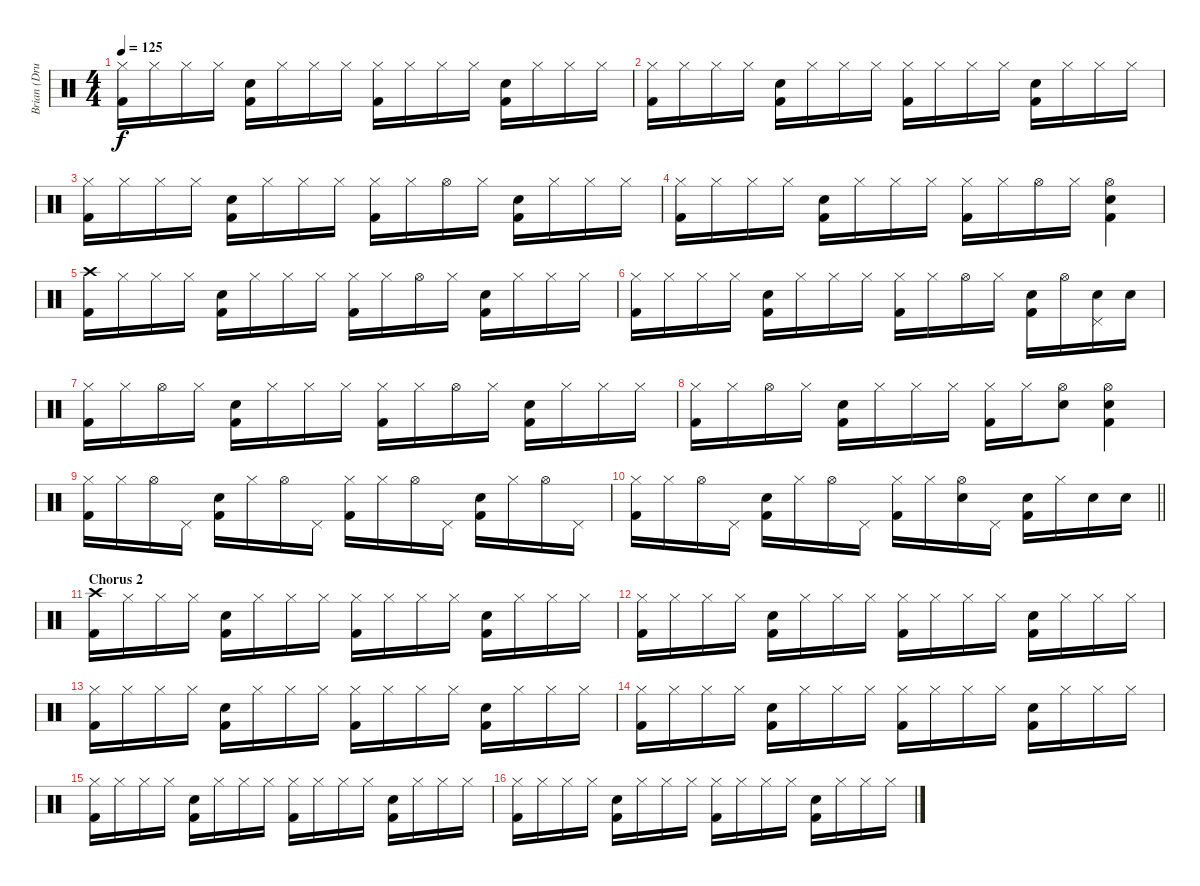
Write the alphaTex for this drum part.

\track ("Brian (Drums)" "Brian (Dru") {instrument percussion}
\staff {score}
\articulation defaults
\ts (4 4)
\tempo 125
\clef neutral
\ks c
("Hi-Hat (closed)" "Kick (hit) 2").16{dy f} "Hi-Hat (closed)".16 "Hi-Hat (closed)".16 "Hi-Hat (closed)".16 ("Electric Snare (hit)" "Kick (hit) 2").16 "Hi-Hat (closed)".16 "Hi-Hat (closed)".16 "Hi-Hat (closed)".16 ("Hi-Hat (closed)" "Kick (hit) 2").16 "Hi-Hat (closed)".16 "Hi-Hat (closed)".16 "Hi-Hat (closed)".16 ("Electric Snare (hit)" "Kick (hit) 2").16 "Hi-Hat (closed)".16 "Hi-Hat (closed)".16 "Hi-Hat (closed)".16 |
("Hi-Hat (closed)" "Kick (hit) 2").16 "Hi-Hat (closed)".16 "Hi-Hat (closed)".16 "Hi-Hat (closed)".16 ("Electric Snare (hit)" "Kick (hit) 2").16 "Hi-Hat (closed)".16 "Hi-Hat (closed)".16 "Hi-Hat (closed)".16 ("Hi-Hat (closed)" "Kick (hit) 2").16 "Hi-Hat (closed)".16 "Hi-Hat (closed)".16 "Hi-Hat (closed)".16 ("Electric Snare (hit)" "Kick (hit) 2").16 "Hi-Hat (closed)".16 "Hi-Hat (closed)".16 "Hi-Hat (closed)".16 |
("Hi-Hat (closed)" "Kick (hit) 2").16 "Hi-Hat (closed)".16 "Hi-Hat (closed)".16 "Hi-Hat (closed)".16 ("Electric Snare (hit)" "Kick (hit) 2").16 "Hi-Hat (closed)".16 "Hi-Hat (closed)".16 "Hi-Hat (closed)".16 ("Hi-Hat (closed)" "Kick (hit) 2").16 "Hi-Hat (closed)".16 "Hi-Hat (open)".16 "Hi-Hat (closed)".16 ("Electric Snare (hit)" "Kick (hit) 2").16 "Hi-Hat (closed)".16 "Hi-Hat (closed)".16 "Hi-Hat (closed)".16 |
("Hi-Hat (closed)" "Kick (hit) 2").16 "Hi-Hat (closed)".16 "Hi-Hat (closed)".16 "Hi-Hat (closed)".16 ("Electric Snare (hit)" "Kick (hit) 2").16 "Hi-Hat (closed)".16 "Hi-Hat (closed)".16 "Hi-Hat (closed)".16 ("Hi-Hat (closed)" "Kick (hit) 2").16 "Hi-Hat (closed)".16 "Hi-Hat (open)".16 "Hi-Hat (closed)".16 ("Hi-Hat (open)" "Electric Snare (hit)" "Kick (hit) 2").4 |
("Crash high (hit)" "Kick (hit) 2").16 "Hi-Hat (closed)".16 "Hi-Hat (closed)".16 "Hi-Hat (closed)".16 ("Electric Snare (hit)" "Kick (hit) 2").16 "Hi-Hat (closed)".16 "Hi-Hat (closed)".16 "Hi-Hat (closed)".16 ("Hi-Hat (closed)" "Kick (hit) 2").16 "Hi-Hat (closed)".16 "Hi-Hat (open)".16 "Hi-Hat (closed)".16 ("Electric Snare (hit)" "Kick (hit) 2").16 "Hi-Hat (closed)".16 "Hi-Hat (closed)".16 "Hi-Hat (closed)".16 |
("Hi-Hat (closed)" "Kick (hit) 2").16 "Hi-Hat (closed)".16 "Hi-Hat (closed)".16 "Hi-Hat (closed)".16 ("Electric Snare (hit)" "Kick (hit) 2").16 "Hi-Hat (closed)".16 "Hi-Hat (closed)".16 "Hi-Hat (closed)".16 ("Hi-Hat (closed)" "Kick (hit) 2").16 "Hi-Hat (closed)".16 "Hi-Hat (open)".16 "Hi-Hat (closed)".16 ("Electric Snare (hit)" "Kick (hit) 2").16 "Hi-Hat (open)".16 ("Pedal Hi-Hat (hit)" "Electric Snare (hit)").16 "Electric Snare (hit)".16 |
("Hi-Hat (closed)" "Kick (hit) 2").16 "Hi-Hat (closed)".16 "Hi-Hat (open)".16 "Hi-Hat (closed)".16 ("Electric Snare (hit)" "Kick (hit) 2").16 "Hi-Hat (closed)".16 "Hi-Hat (closed)".16 "Hi-Hat (closed)".16 ("Hi-Hat (closed)" "Kick (hit) 2").16 "Hi-Hat (closed)".16 "Hi-Hat (open)".16 "Hi-Hat (closed)".16 ("Electric Snare (hit)" "Kick (hit) 2").16 "Hi-Hat (closed)".16 "Hi-Hat (closed)".16 "Hi-Hat (closed)".16 |
("Hi-Hat (closed)" "Kick (hit) 2").16 "Hi-Hat (closed)".16 "Hi-Hat (open)".16 "Hi-Hat (closed)".16 ("Electric Snare (hit)" "Kick (hit) 2").16 "Hi-Hat (closed)".16 "Hi-Hat (closed)".16 "Hi-Hat (closed)".16 ("Hi-Hat (closed)" "Kick (hit) 2").16 "Hi-Hat (closed)".16 ("Hi-Hat (open)" "Electric Snare (hit)").8 ("Hi-Hat (open)" "Electric Snare (hit)" "Kick (hit) 2").4 |
("Hi-Hat (closed)" "Kick (hit) 2").16 "Hi-Hat (closed)".16 "Hi-Hat (open)".16 "Pedal Hi-Hat (hit)".16 ("Electric Snare (hit)" "Kick (hit) 2").16 "Hi-Hat (closed)".16 "Hi-Hat (open)".16 "Pedal Hi-Hat (hit)".16 ("Hi-Hat (closed)" "Kick (hit) 2").16 "Hi-Hat (closed)".16 "Hi-Hat (open)".16 "Pedal Hi-Hat (hit)".16 ("Electric Snare (hit)" "Kick (hit) 2").16 "Hi-Hat (closed)".16 "Hi-Hat (open)".16 "Pedal Hi-Hat (hit)".16 |
\barLineRight lightlight
("Hi-Hat (closed)" "Kick (hit) 2").16 "Hi-Hat (closed)".16 "Hi-Hat (open)".16 "Pedal Hi-Hat (hit)".16 ("Electric Snare (hit)" "Kick (hit) 2").16 "Hi-Hat (closed)".16 "Hi-Hat (open)".16 "Pedal Hi-Hat (hit)".16 ("Hi-Hat (closed)" "Kick (hit) 2").16 "Hi-Hat (closed)".16 ("Hi-Hat (open)" "Electric Snare (hit)").16 "Pedal Hi-Hat (hit)".16 ("Electric Snare (hit)" "Kick (hit) 2").16 "Hi-Hat (closed)".16 "Electric Snare (hit)".16 "Electric Snare (hit)".16 |
\section ("" "Chorus 2")
("Crash high (hit)" "Kick (hit) 2").16 "Hi-Hat (closed)".16 "Hi-Hat (closed)".16 "Hi-Hat (closed)".16 ("Electric Snare (hit)" "Kick (hit) 2").16 "Hi-Hat (closed)".16 "Hi-Hat (closed)".16 "Hi-Hat (closed)".16 ("Hi-Hat (closed)" "Kick (hit) 2").16 "Hi-Hat (closed)".16 "Hi-Hat (closed)".16 "Hi-Hat (closed)".16 ("Electric Snare (hit)" "Kick (hit) 2").16 "Hi-Hat (closed)".16 "Hi-Hat (closed)".16 "Hi-Hat (closed)".16 |
("Hi-Hat (closed)" "Kick (hit) 2").16 "Hi-Hat (closed)".16 "Hi-Hat (closed)".16 "Hi-Hat (closed)".16 ("Electric Snare (hit)" "Kick (hit) 2").16 "Hi-Hat (closed)".16 "Hi-Hat (closed)".16 "Hi-Hat (closed)".16 ("Hi-Hat (closed)" "Kick (hit) 2").16 "Hi-Hat (closed)".16 "Hi-Hat (closed)".16 "Hi-Hat (closed)".16 ("Electric Snare (hit)" "Kick (hit) 2").16 "Hi-Hat (closed)".16 "Hi-Hat (closed)".16 "Hi-Hat (closed)".16 |
("Hi-Hat (closed)" "Kick (hit) 2").16 "Hi-Hat (closed)".16 "Hi-Hat (closed)".16 "Hi-Hat (closed)".16 ("Electric Snare (hit)" "Kick (hit) 2").16 "Hi-Hat (closed)".16 "Hi-Hat (closed)".16 "Hi-Hat (closed)".16 ("Hi-Hat (closed)" "Kick (hit) 2").16 "Hi-Hat (closed)".16 "Hi-Hat (closed)".16 "Hi-Hat (closed)".16 ("Electric Snare (hit)" "Kick (hit) 2").16 "Hi-Hat (closed)".16 "Hi-Hat (closed)".16 "Hi-Hat (closed)".16 |
("Hi-Hat (closed)" "Kick (hit) 2").16 "Hi-Hat (closed)".16 "Hi-Hat (closed)".16 "Hi-Hat (closed)".16 ("Electric Snare (hit)" "Kick (hit) 2").16 "Hi-Hat (closed)".16 "Hi-Hat (closed)".16 "Hi-Hat (closed)".16 ("Hi-Hat (closed)" "Kick (hit) 2").16 "Hi-Hat (closed)".16 "Hi-Hat (closed)".16 "Hi-Hat (closed)".16 ("Electric Snare (hit)" "Kick (hit) 2").16 "Hi-Hat (closed)".16 "Hi-Hat (closed)".16 "Hi-Hat (closed)".16 |
("Hi-Hat (closed)" "Kick (hit) 2").16 "Hi-Hat (closed)".16 "Hi-Hat (closed)".16 "Hi-Hat (closed)".16 ("Electric Snare (hit)" "Kick (hit) 2").16 "Hi-Hat (closed)".16 "Hi-Hat (closed)".16 "Hi-Hat (closed)".16 ("Hi-Hat (closed)" "Kick (hit) 2").16 "Hi-Hat (closed)".16 "Hi-Hat (closed)".16 "Hi-Hat (closed)".16 ("Electric Snare (hit)" "Kick (hit) 2").16 "Hi-Hat (closed)".16 "Hi-Hat (closed)".16 "Hi-Hat (closed)".16 |
("Hi-Hat (closed)" "Kick (hit) 2").16 "Hi-Hat (closed)".16 "Hi-Hat (closed)".16 "Hi-Hat (closed)".16 ("Electric Snare (hit)" "Kick (hit) 2").16 "Hi-Hat (closed)".16 "Hi-Hat (closed)".16 "Hi-Hat (closed)".16 ("Hi-Hat (closed)" "Kick (hit) 2").16 "Hi-Hat (closed)".16 "Hi-Hat (closed)".16 "Hi-Hat (closed)".16 ("Electric Snare (hit)" "Kick (hit) 2").16 "Hi-Hat (closed)".16 "Hi-Hat (closed)".16 "Hi-Hat (closed)".16
